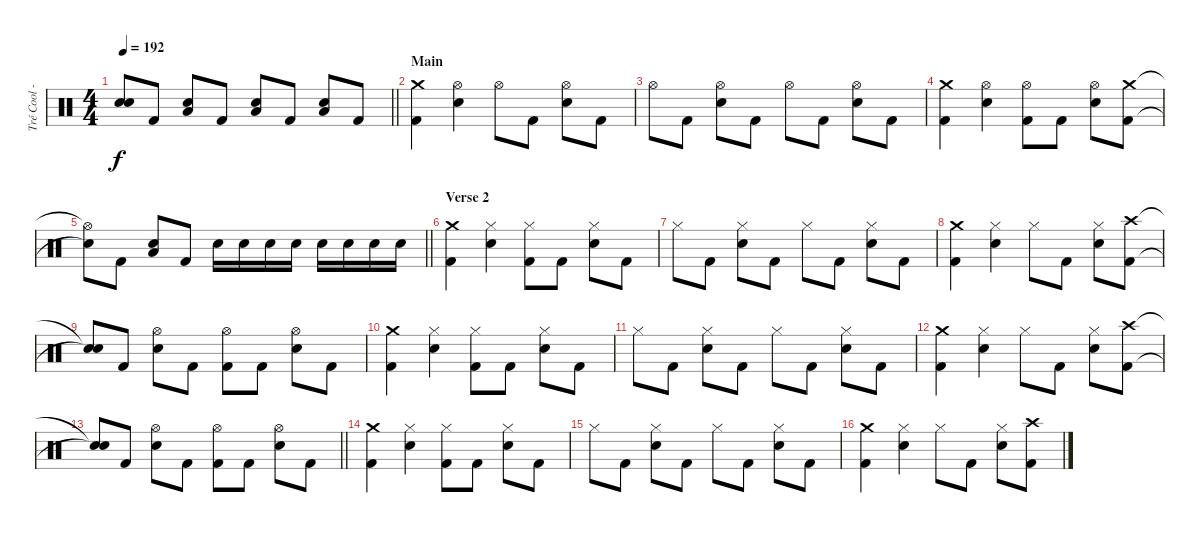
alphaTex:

\track ("Tré Cool - Drums" "Tré Cool -") {instrument percussion}
\staff {score}
\articulation defaults
\ts (4 4)
\tempo 192
\clef neutral
\barLineRight lightlight
\ks c
("Snare (hit)"{t} "Snare (hit)"{t}).8{dy f} "Kick (hit) 2".8 ("Low Floor Tom (hit)" "Electric Snare (hit)").8 "Kick (hit) 2".8 ("Low Floor Tom (hit)" "Electric Snare (hit)").8 "Kick (hit) 2".8 ("Low Floor Tom (hit)" "Electric Snare (hit)").8 "Kick (hit) 2".8 |
\section ("" "Main")
("Crash medium (hit)" "Kick (hit) 2").4 ("Hi-Hat (open)" "Electric Snare (hit)").4 "Hi-Hat (open)".8 "Kick (hit) 2".8 ("Hi-Hat (open)" "Electric Snare (hit)").8 "Kick (hit) 2".8 |
"Hi-Hat (open)".8 "Kick (hit) 2".8 ("Hi-Hat (open)" "Electric Snare (hit)").8 "Kick (hit) 2".8 "Hi-Hat (open)".8 "Kick (hit) 2".8 ("Hi-Hat (open)" "Electric Snare (hit)").8 "Kick (hit) 2".8 |
("Crash medium (hit)" "Kick (hit) 2").4 ("Hi-Hat (open)" "Electric Snare (hit)").4 ("Hi-Hat (open)" "Kick (hit) 2").8 "Kick (hit) 2".8 ("Hi-Hat (open)" "Electric Snare (hit)").8 ("Crash medium (hit)" "Kick (hit) 2").8 |
\barLineRight lightlight
("Hi-Hat (open)"{t} "Snare (hit)"{t}).8 "Kick (hit) 2".8 ("Low Floor Tom (hit)" "Electric Snare (hit)").8 "Kick (hit) 2".8 "Electric Snare (hit)".16 "Electric Snare (hit)".16 "Electric Snare (hit)".16 "Electric Snare (hit)".16 "Electric Snare (hit)".16 "Electric Snare (hit)".16 "Electric Snare (hit)".16 "Electric Snare (hit)".16 |
\section ("" "Verse 2")
("Crash medium (hit)" "Kick (hit) 2").4 ("Hi-Hat (closed)" "Electric Snare (hit)").4 ("Hi-Hat (closed)" "Kick (hit) 2").8 "Kick (hit) 2".8 ("Hi-Hat (closed)" "Electric Snare (hit)").8 "Kick (hit) 2".8 |
"Hi-Hat (closed)".8 "Kick (hit) 2".8 ("Hi-Hat (closed)" "Electric Snare (hit)").8 "Kick (hit) 2".8 "Hi-Hat (closed)".8 "Kick (hit) 2".8 ("Hi-Hat (closed)" "Electric Snare (hit)").8 "Kick (hit) 2".8 |
("Crash medium (hit)" "Kick (hit) 2").4 ("Hi-Hat (closed)" "Electric Snare (hit)").4 "Hi-Hat (closed)".8 "Kick (hit) 2".8 ("Hi-Hat (closed)" "Electric Snare (hit)").8 ("Crash high (hit)" "Kick (hit) 2").8 |
("Snare (hit)"{t} "Snare (hit)"{t}).8 "Kick (hit) 2".8 ("Hi-Hat (open)" "Electric Snare (hit)").8 "Kick (hit) 2".8 ("Hi-Hat (open)" "Kick (hit) 2").8 "Kick (hit) 2".8 ("Hi-Hat (open)" "Electric Snare (hit)").8 "Kick (hit) 2".8 |
("Crash medium (hit)" "Kick (hit) 2").4 ("Hi-Hat (closed)" "Electric Snare (hit)").4 ("Hi-Hat (closed)" "Kick (hit) 2").8 "Kick (hit) 2".8 ("Hi-Hat (closed)" "Electric Snare (hit)").8 "Kick (hit) 2".8 |
"Hi-Hat (closed)".8 "Kick (hit) 2".8 ("Hi-Hat (closed)" "Electric Snare (hit)").8 "Kick (hit) 2".8 "Hi-Hat (closed)".8 "Kick (hit) 2".8 ("Hi-Hat (closed)" "Electric Snare (hit)").8 "Kick (hit) 2".8 |
("Crash medium (hit)" "Kick (hit) 2").4 ("Hi-Hat (closed)" "Electric Snare (hit)").4 "Hi-Hat (closed)".8 "Kick (hit) 2".8 ("Hi-Hat (closed)" "Electric Snare (hit)").8 ("Crash high (hit)" "Kick (hit) 2").8 |
\barLineRight lightlight
("Snare (hit)"{t} "Snare (hit)"{t}).8 "Kick (hit) 2".8 ("Hi-Hat (open)" "Electric Snare (hit)").8 "Kick (hit) 2".8 ("Hi-Hat (open)" "Kick (hit) 2").8 "Kick (hit) 2".8 ("Hi-Hat (open)" "Electric Snare (hit)").8 "Kick (hit) 2".8 |
("Crash medium (hit)" "Kick (hit) 2").4 ("Hi-Hat (closed)" "Electric Snare (hit)").4 ("Hi-Hat (closed)" "Kick (hit) 2").8 "Kick (hit) 2".8 ("Hi-Hat (closed)" "Electric Snare (hit)").8 "Kick (hit) 2".8 |
"Hi-Hat (closed)".8 "Kick (hit) 2".8 ("Hi-Hat (closed)" "Electric Snare (hit)").8 "Kick (hit) 2".8 "Hi-Hat (closed)".8 "Kick (hit) 2".8 ("Hi-Hat (closed)" "Electric Snare (hit)").8 "Kick (hit) 2".8 |
("Crash medium (hit)" "Kick (hit) 2").4 ("Hi-Hat (closed)" "Electric Snare (hit)").4 "Hi-Hat (closed)".8 "Kick (hit) 2".8 ("Hi-Hat (closed)" "Electric Snare (hit)").8 ("Crash high (hit)" "Kick (hit) 2").8
